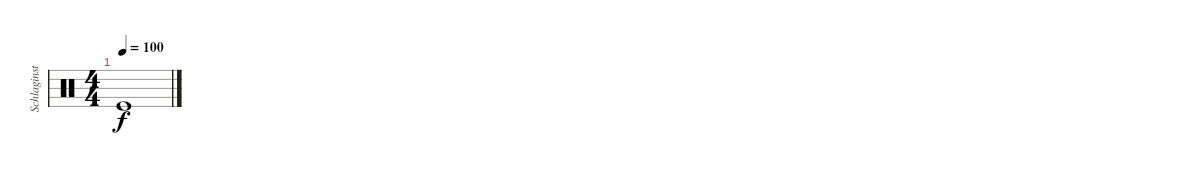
\track ("Schlaginstrumente - Auswahl" "Schlaginst") {instrument percussion}
\staff {score}
\articulation defaults
\ts (4 4)
\tempo 100
\clef neutral
\ks c "Kick (hit)".1{dy f}
